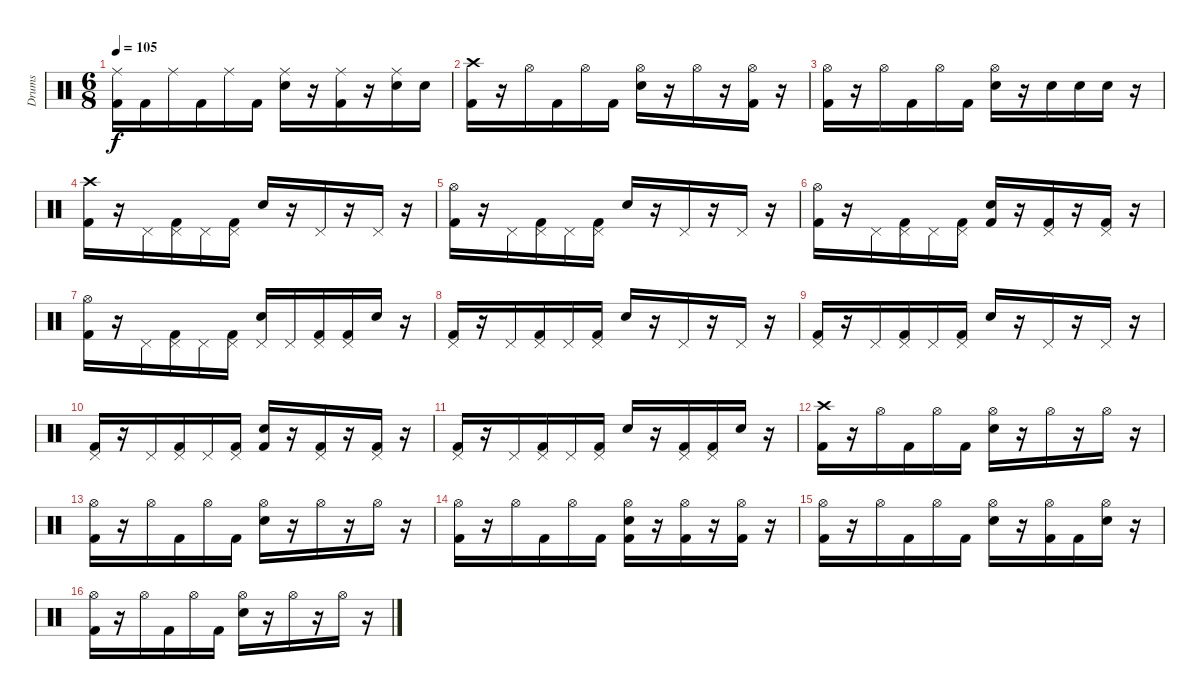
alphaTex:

\track ("Drums" "Drums") {instrument percussion}
\staff {score}
\articulation defaults
\ts (6 8)
\tempo 105
\clef neutral
\ks c
("Ride (middle)" "Kick (hit) 2").16{dy f} "Kick (hit) 2".16 "Ride (middle)".16 "Kick (hit) 2".16 "Ride (middle)".16 "Kick (hit) 2".16 ("Ride (middle)" "Electric Snare (hit)").16 r.16 ("Ride (middle)" "Kick (hit) 2").16 r.16 ("Ride (middle)" "Electric Snare (hit)").16 "Electric Snare (hit)".16 |
("Crash high (hit)" "Kick (hit) 2").16 r.16 "Hi-Hat (open)".16 "Kick (hit) 2".16 "Hi-Hat (open)".16 "Kick (hit) 2".16 ("Hi-Hat (open)" "Electric Snare (hit)").16 r.16 "Hi-Hat (open)".16 r.16 ("Hi-Hat (open)" "Kick (hit) 2").16 r.16 |
("Hi-Hat (open)" "Kick (hit) 2").16 r.16 "Hi-Hat (open)".16 "Kick (hit) 2".16 "Hi-Hat (open)".16 "Kick (hit) 2".16 ("Hi-Hat (open)" "Electric Snare (hit)").16 r.16 "Electric Snare (hit)".16 "Electric Snare (hit)".16 "Electric Snare (hit)".16 r.16 |
("Crash high (hit)" "Kick (hit) 2").16 r.16 "Pedal Hi-Hat (hit)".16 ("Pedal Hi-Hat (hit)" "Kick (hit) 2").16 "Pedal Hi-Hat (hit)".16 ("Pedal Hi-Hat (hit)" "Kick (hit) 2").16 "Electric Snare (hit)".16 r.16 "Pedal Hi-Hat (hit)".16 r.16 "Pedal Hi-Hat (hit)".16 r.16 |
("Hi-Hat (open)" "Kick (hit) 2").16 r.16 "Pedal Hi-Hat (hit)".16 ("Pedal Hi-Hat (hit)" "Kick (hit) 2").16 "Pedal Hi-Hat (hit)".16 ("Pedal Hi-Hat (hit)" "Kick (hit) 2").16 "Electric Snare (hit)".16 r.16 "Pedal Hi-Hat (hit)".16 r.16 "Pedal Hi-Hat (hit)".16 r.16 |
("Hi-Hat (open)" "Kick (hit) 2").16 r.16 "Pedal Hi-Hat (hit)".16 ("Pedal Hi-Hat (hit)" "Kick (hit) 2").16 "Pedal Hi-Hat (hit)".16 ("Pedal Hi-Hat (hit)" "Kick (hit) 2").16 ("Electric Snare (hit)" "Kick (hit) 2").16 r.16 ("Pedal Hi-Hat (hit)" "Kick (hit) 2").16 r.16 ("Pedal Hi-Hat (hit)" "Kick (hit) 2").16 r.16 |
("Hi-Hat (open)" "Kick (hit) 2").16 r.16 "Pedal Hi-Hat (hit)".16 ("Pedal Hi-Hat (hit)" "Kick (hit) 2").16 "Pedal Hi-Hat (hit)".16 ("Pedal Hi-Hat (hit)" "Kick (hit) 2").16 ("Pedal Hi-Hat (hit)" "Electric Snare (hit)").16 "Pedal Hi-Hat (hit)".16 ("Pedal Hi-Hat (hit)" "Kick (hit) 2").16 ("Pedal Hi-Hat (hit)" "Kick (hit) 2").16 "Electric Snare (hit)".16 r.16 |
("Pedal Hi-Hat (hit)" "Kick (hit) 2").16 r.16 "Pedal Hi-Hat (hit)".16 ("Pedal Hi-Hat (hit)" "Kick (hit) 2").16 "Pedal Hi-Hat (hit)".16 ("Pedal Hi-Hat (hit)" "Kick (hit) 2").16 "Electric Snare (hit)".16 r.16 "Pedal Hi-Hat (hit)".16 r.16 "Pedal Hi-Hat (hit)".16 r.16 |
("Pedal Hi-Hat (hit)" "Kick (hit) 2").16 r.16 "Pedal Hi-Hat (hit)".16 ("Pedal Hi-Hat (hit)" "Kick (hit) 2").16 "Pedal Hi-Hat (hit)".16 ("Pedal Hi-Hat (hit)" "Kick (hit) 2").16 "Electric Snare (hit)".16 r.16 "Pedal Hi-Hat (hit)".16 r.16 "Pedal Hi-Hat (hit)".16 r.16 |
("Pedal Hi-Hat (hit)" "Kick (hit) 2").16 r.16 "Pedal Hi-Hat (hit)".16 ("Pedal Hi-Hat (hit)" "Kick (hit) 2").16 "Pedal Hi-Hat (hit)".16 ("Pedal Hi-Hat (hit)" "Kick (hit) 2").16 ("Electric Snare (hit)" "Kick (hit) 2").16 r.16 ("Pedal Hi-Hat (hit)" "Kick (hit) 2").16 r.16 ("Pedal Hi-Hat (hit)" "Kick (hit) 2").16 r.16 |
("Pedal Hi-Hat (hit)" "Kick (hit) 2").16 r.16 "Pedal Hi-Hat (hit)".16 ("Pedal Hi-Hat (hit)" "Kick (hit) 2").16 "Pedal Hi-Hat (hit)".16 ("Pedal Hi-Hat (hit)" "Kick (hit) 2").16 "Electric Snare (hit)".16 r.16 ("Pedal Hi-Hat (hit)" "Kick (hit) 2").16 ("Pedal Hi-Hat (hit)" "Kick (hit) 2").16 "Electric Snare (hit)".16 r.16 |
("Crash high (hit)" "Kick (hit) 2").16 r.16 "Hi-Hat (open)".16 "Kick (hit) 2".16 "Hi-Hat (open)".16 "Kick (hit) 2".16 ("Hi-Hat (open)" "Electric Snare (hit)").16 r.16 "Hi-Hat (open)".16 r.16 "Hi-Hat (open)".16 r.16 |
("Hi-Hat (open)" "Kick (hit) 2").16 r.16 "Hi-Hat (open)".16 "Kick (hit) 2".16 "Hi-Hat (open)".16 "Kick (hit) 2".16 ("Hi-Hat (open)" "Electric Snare (hit)").16 r.16 "Hi-Hat (open)".16 r.16 "Hi-Hat (open)".16 r.16 |
("Hi-Hat (open)" "Kick (hit) 2").16 r.16 "Hi-Hat (open)".16 "Kick (hit) 2".16 "Hi-Hat (open)".16 "Kick (hit) 2".16 ("Hi-Hat (open)" "Electric Snare (hit)" "Kick (hit) 2").16 r.16 ("Hi-Hat (open)" "Kick (hit) 2").16 r.16 ("Hi-Hat (open)" "Kick (hit) 2").16 r.16 |
("Hi-Hat (open)" "Kick (hit) 2").16 r.16 "Hi-Hat (open)".16 "Kick (hit) 2".16 "Hi-Hat (open)".16 "Kick (hit) 2".16 ("Hi-Hat (open)" "Electric Snare (hit)").16 r.16 ("Hi-Hat (open)" "Kick (hit) 2").16 "Kick (hit) 2".16 ("Hi-Hat (open)" "Electric Snare (hit)").16 r.16 |
("Hi-Hat (open)" "Kick (hit) 2").16 r.16 "Hi-Hat (open)".16 "Kick (hit) 2".16 "Hi-Hat (open)".16 "Kick (hit) 2".16 ("Hi-Hat (open)" "Electric Snare (hit)").16 r.16 "Hi-Hat (open)".16 r.16 "Hi-Hat (open)".16 r.16
